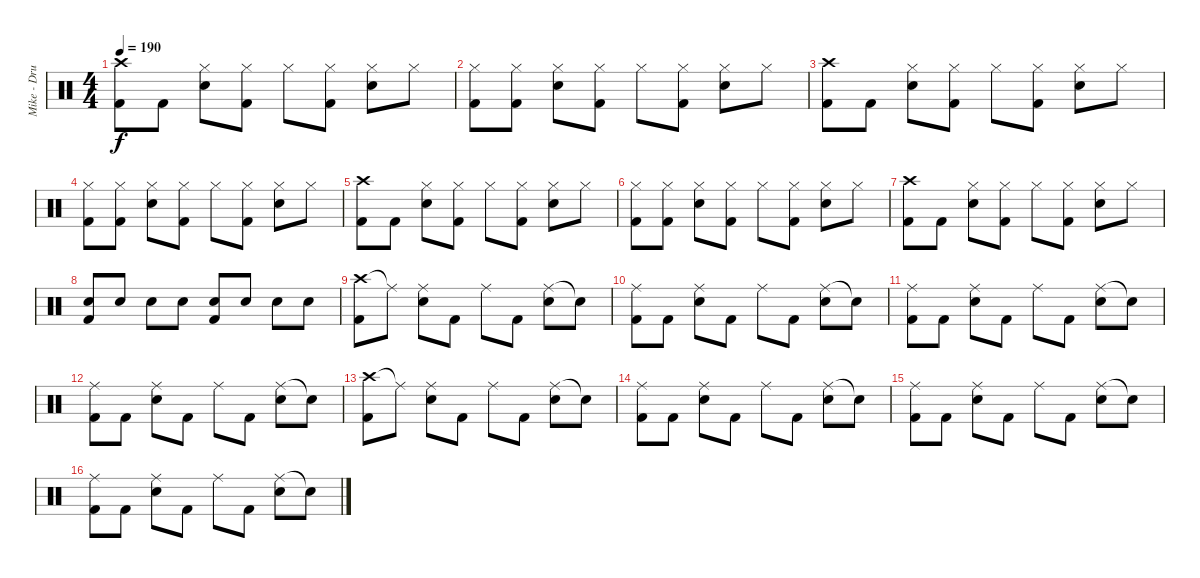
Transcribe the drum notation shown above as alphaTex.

\track ("Mike - Drums" "Mike - Dru") {instrument percussion}
\staff {score}
\articulation defaults
\ts (4 4)
\tempo 190
\clef neutral
\ks c
("Crash high (hit)" "Kick (hit) 2").8{dy f} "Kick (hit) 2".8 ("Hi-Hat (closed)" "Snare (hit) 2").8 ("Hi-Hat (closed)" "Kick (hit) 2").8 "Hi-Hat (closed)".8 ("Hi-Hat (closed)" "Kick (hit) 2").8 ("Hi-Hat (closed)" "Snare (hit) 2").8 "Hi-Hat (closed)".8 |
("Hi-Hat (closed)" "Kick (hit) 2").8 ("Hi-Hat (closed)" "Kick (hit) 2").8 ("Hi-Hat (closed)" "Snare (hit) 2").8 ("Hi-Hat (closed)" "Kick (hit) 2").8 "Hi-Hat (closed)".8 ("Hi-Hat (closed)" "Kick (hit) 2").8 ("Hi-Hat (closed)" "Snare (hit) 2").8 "Hi-Hat (closed)".8 |
("Crash high (hit)" "Kick (hit) 2").8 "Kick (hit) 2".8 ("Hi-Hat (closed)" "Snare (hit) 2").8 ("Hi-Hat (closed)" "Kick (hit) 2").8 "Hi-Hat (closed)".8 ("Hi-Hat (closed)" "Kick (hit) 2").8 ("Hi-Hat (closed)" "Snare (hit) 2").8 "Hi-Hat (closed)".8 |
("Hi-Hat (closed)" "Kick (hit) 2").8 ("Hi-Hat (closed)" "Kick (hit) 2").8 ("Hi-Hat (closed)" "Snare (hit) 2").8 ("Hi-Hat (closed)" "Kick (hit) 2").8 "Hi-Hat (closed)".8 ("Hi-Hat (closed)" "Kick (hit) 2").8 ("Hi-Hat (closed)" "Snare (hit) 2").8 "Hi-Hat (closed)".8 |
("Crash high (hit)" "Kick (hit) 2").8 "Kick (hit) 2".8 ("Hi-Hat (closed)" "Snare (hit) 2").8 ("Hi-Hat (closed)" "Kick (hit) 2").8 "Hi-Hat (closed)".8 ("Hi-Hat (closed)" "Kick (hit) 2").8 ("Hi-Hat (closed)" "Snare (hit) 2").8 "Hi-Hat (closed)".8 |
("Hi-Hat (closed)" "Kick (hit) 2").8 ("Hi-Hat (closed)" "Kick (hit) 2").8 ("Hi-Hat (closed)" "Snare (hit) 2").8 ("Hi-Hat (closed)" "Kick (hit) 2").8 "Hi-Hat (closed)".8 ("Hi-Hat (closed)" "Kick (hit) 2").8 ("Hi-Hat (closed)" "Snare (hit) 2").8 "Hi-Hat (closed)".8 |
("Crash high (hit)" "Kick (hit) 2").8 "Kick (hit) 2".8 ("Hi-Hat (closed)" "Snare (hit) 2").8 ("Hi-Hat (closed)" "Kick (hit) 2").8 "Hi-Hat (closed)".8 ("Hi-Hat (closed)" "Kick (hit) 2").8 ("Hi-Hat (closed)" "Snare (hit) 2").8 "Hi-Hat (closed)".8 |
("Snare (hit) 2" "Kick (hit) 2").8 "Snare (hit) 2".8 "Snare (hit) 2".8 "Snare (hit) 2".8 ("Snare (hit) 2" "Kick (hit) 2").8 "Snare (hit) 2".8 "Snare (hit) 2".8 "Snare (hit) 2".8 |
("Crash high (hit)" "Kick (hit) 2").8 "Ride (middle)"{t}.8 ("Ride (middle)" "Snare (hit) 2").8 "Kick (hit) 2".8 "Ride (middle)".8 "Kick (hit) 2".8 ("Ride (middle)" "Snare (hit) 2").8 "Snare (hit)"{t}.8 |
("Ride (middle)" "Kick (hit) 2").8 "Kick (hit) 2".8 ("Ride (middle)" "Snare (hit) 2").8 "Kick (hit) 2".8 "Ride (middle)".8 "Kick (hit) 2".8 ("Ride (middle)" "Snare (hit) 2").8 "Snare (hit)"{t}.8 |
("Ride (middle)" "Kick (hit) 2").8 "Kick (hit) 2".8 ("Ride (middle)" "Snare (hit) 2").8 "Kick (hit) 2".8 "Ride (middle)".8 "Kick (hit) 2".8 ("Ride (middle)" "Snare (hit) 2").8 "Snare (hit)"{t}.8 |
("Ride (middle)" "Kick (hit) 2").8 "Kick (hit) 2".8 ("Ride (middle)" "Snare (hit) 2").8 "Kick (hit) 2".8 "Ride (middle)".8 "Kick (hit) 2".8 ("Ride (middle)" "Snare (hit) 2").8 "Snare (hit)"{t}.8 |
("Crash high (hit)" "Kick (hit) 2").8 "Ride (middle)"{t}.8 ("Ride (middle)" "Snare (hit) 2").8 "Kick (hit) 2".8 "Ride (middle)".8 "Kick (hit) 2".8 ("Ride (middle)" "Snare (hit) 2").8 "Snare (hit)"{t}.8 |
("Ride (middle)" "Kick (hit) 2").8 "Kick (hit) 2".8 ("Ride (middle)" "Snare (hit) 2").8 "Kick (hit) 2".8 "Ride (middle)".8 "Kick (hit) 2".8 ("Ride (middle)" "Snare (hit) 2").8 "Snare (hit)"{t}.8 |
("Ride (middle)" "Kick (hit) 2").8 "Kick (hit) 2".8 ("Ride (middle)" "Snare (hit) 2").8 "Kick (hit) 2".8 "Ride (middle)".8 "Kick (hit) 2".8 ("Ride (middle)" "Snare (hit) 2").8 "Snare (hit)"{t}.8 |
("Ride (middle)" "Kick (hit) 2").8 "Kick (hit) 2".8 ("Ride (middle)" "Snare (hit) 2").8 "Kick (hit) 2".8 "Ride (middle)".8 "Kick (hit) 2".8 ("Ride (middle)" "Snare (hit) 2").8 "Snare (hit)"{t}.8
